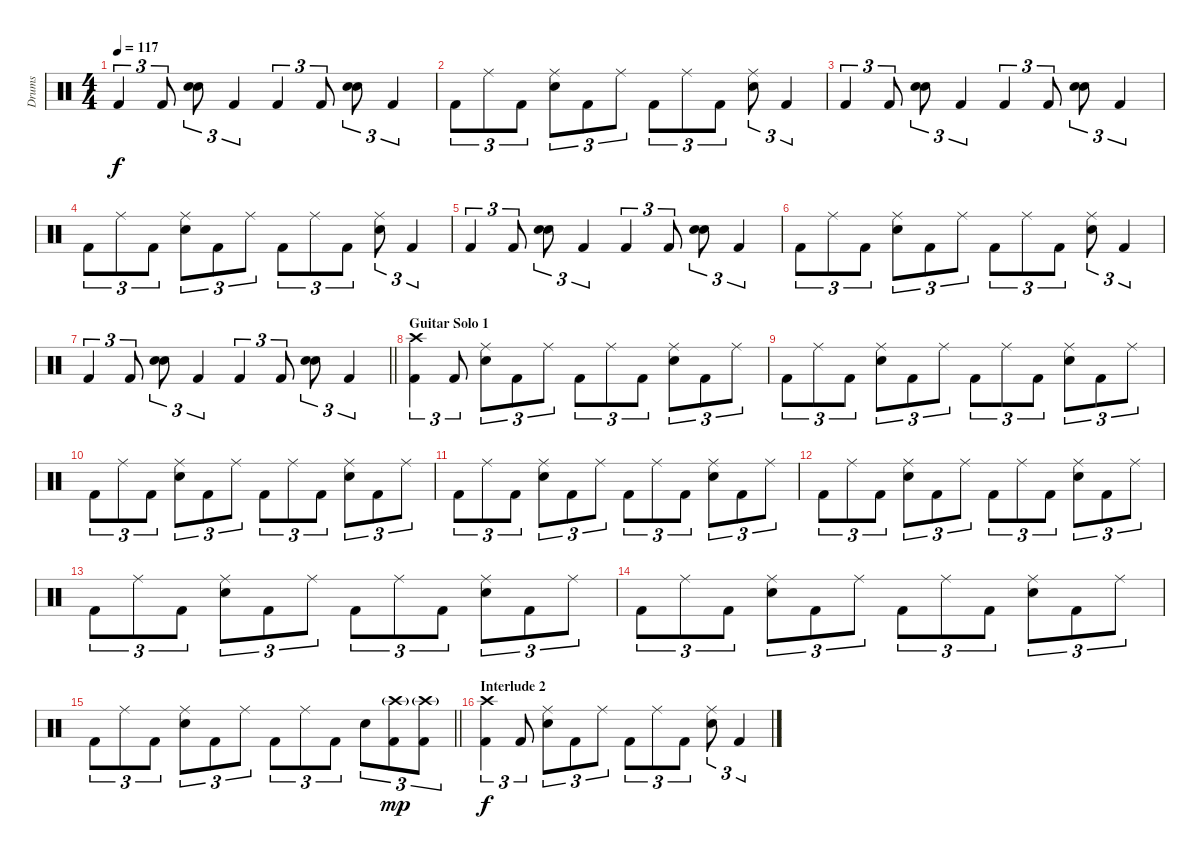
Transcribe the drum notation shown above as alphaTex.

\track ("Drums" "Drums") {instrument percussion}
\staff {score}
\articulation defaults
\ts (4 4)
\tempo 117
\clef neutral
\ks c "Kick (hit) 2".4{tu (3 2) dy f} "Kick (hit) 2".8{tu (3 2)}
("Electric Snare (hit)" "Electric Snare (hit)").8{tu (3 2)} "Kick (hit) 2".4{tu (3 2)} "Kick (hit) 2".4{tu (3 2)} "Kick (hit) 2".8{tu (3 2)} ("Electric Snare (hit)" "Electric Snare (hit)").8{tu (3 2)} "Kick (hit) 2".4{tu (3 2)} |
"Kick (hit) 2".8{tu (3 2)} "Ride (middle)".8{tu (3 2)} "Kick (hit) 2".8{tu (3 2)} ("Ride (middle)" "Electric Snare (hit)").8{tu (3 2)} "Kick (hit) 2".8{tu (3 2)} "Ride (middle)".8{tu (3 2)} "Kick (hit) 2".8{tu (3 2)} "Ride (middle)".8{tu (3 2)} "Kick (hit) 2".8{tu (3 2)} ("Ride (middle)" "Electric Snare (hit)").8{tu (3 2)} "Kick (hit) 2".4{tu (3 2)} |
"Kick (hit) 2".4{tu (3 2)} "Kick (hit) 2".8{tu (3 2)} ("Electric Snare (hit)" "Electric Snare (hit)").8{tu (3 2)} "Kick (hit) 2".4{tu (3 2)} "Kick (hit) 2".4{tu (3 2)} "Kick (hit) 2".8{tu (3 2)} ("Electric Snare (hit)" "Electric Snare (hit)").8{tu (3 2)} "Kick (hit) 2".4{tu (3 2)} |
"Kick (hit) 2".8{tu (3 2)} "Ride (middle)".8{tu (3 2)} "Kick (hit) 2".8{tu (3 2)} ("Ride (middle)" "Electric Snare (hit)").8{tu (3 2)} "Kick (hit) 2".8{tu (3 2)} "Ride (middle)".8{tu (3 2)} "Kick (hit) 2".8{tu (3 2)} "Ride (middle)".8{tu (3 2)} "Kick (hit) 2".8{tu (3 2)} ("Ride (middle)" "Electric Snare (hit)").8{tu (3 2)} "Kick (hit) 2".4{tu (3 2)} |
"Kick (hit) 2".4{tu (3 2)} "Kick (hit) 2".8{tu (3 2)} ("Electric Snare (hit)" "Electric Snare (hit)").8{tu (3 2)} "Kick (hit) 2".4{tu (3 2)} "Kick (hit) 2".4{tu (3 2)} "Kick (hit) 2".8{tu (3 2)} ("Electric Snare (hit)" "Electric Snare (hit)").8{tu (3 2)} "Kick (hit) 2".4{tu (3 2)} |
"Kick (hit) 2".8{tu (3 2)} "Ride (middle)".8{tu (3 2)} "Kick (hit) 2".8{tu (3 2)} ("Ride (middle)" "Electric Snare (hit)").8{tu (3 2)} "Kick (hit) 2".8{tu (3 2)} "Ride (middle)".8{tu (3 2)} "Kick (hit) 2".8{tu (3 2)} "Ride (middle)".8{tu (3 2)} "Kick (hit) 2".8{tu (3 2)} ("Ride (middle)" "Electric Snare (hit)").8{tu (3 2)} "Kick (hit) 2".4{tu (3 2)} |
\barLineRight lightlight "Kick (hit) 2".4{tu (3 2)} "Kick (hit) 2".8{tu (3 2)}
("Electric Snare (hit)" "Electric Snare (hit)").8{tu (3 2)} "Kick (hit) 2".4{tu (3 2)} "Kick (hit) 2".4{tu (3 2)} "Kick (hit) 2".8{tu (3 2)} ("Electric Snare (hit)" "Electric Snare (hit)").8{tu (3 2)} "Kick (hit) 2".4{tu (3 2)} |
\section ("" "Guitar Solo 1")
("Crash high (hit)" "Kick (hit) 2").4{tu (3 2)} "Kick (hit) 2".8{tu (3 2)} ("Ride (middle)" "Electric Snare (hit)").8{tu (3 2)} "Kick (hit) 2".8{tu (3 2)} "Ride (middle)".8{tu (3 2)} "Kick (hit) 2".8{tu (3 2)} "Ride (middle)".8{tu (3 2)} "Kick (hit) 2".8{tu (3 2)} ("Ride (middle)" "Electric Snare (hit)").8{tu (3 2)} "Kick (hit) 2".8{tu (3 2)} "Ride (middle)".8{tu (3 2)} |
"Kick (hit) 2".8{tu (3 2)} "Ride (middle)".8{tu (3 2)} "Kick (hit) 2".8{tu (3 2)} ("Ride (middle)" "Electric Snare (hit)").8{tu (3 2)} "Kick (hit) 2".8{tu (3 2)} "Ride (middle)".8{tu (3 2)} "Kick (hit) 2".8{tu (3 2)} "Ride (middle)".8{tu (3 2)} "Kick (hit) 2".8{tu (3 2)} ("Ride (middle)" "Electric Snare (hit)").8{tu (3 2)} "Kick (hit) 2".8{tu (3 2)} "Ride (middle)".8{tu (3 2)} |
"Kick (hit) 2".8{tu (3 2)} "Ride (middle)".8{tu (3 2)} "Kick (hit) 2".8{tu (3 2)} ("Ride (middle)" "Electric Snare (hit)").8{tu (3 2)} "Kick (hit) 2".8{tu (3 2)} "Ride (middle)".8{tu (3 2)} "Kick (hit) 2".8{tu (3 2)} "Ride (middle)".8{tu (3 2)} "Kick (hit) 2".8{tu (3 2)} ("Ride (middle)" "Electric Snare (hit)").8{tu (3 2)} "Kick (hit) 2".8{tu (3 2)} "Ride (middle)".8{tu (3 2)} |
"Kick (hit) 2".8{tu (3 2)} "Ride (middle)".8{tu (3 2)} "Kick (hit) 2".8{tu (3 2)} ("Ride (middle)" "Electric Snare (hit)").8{tu (3 2)} "Kick (hit) 2".8{tu (3 2)} "Ride (middle)".8{tu (3 2)} "Kick (hit) 2".8{tu (3 2)} "Ride (middle)".8{tu (3 2)} "Kick (hit) 2".8{tu (3 2)} ("Ride (middle)" "Electric Snare (hit)").8{tu (3 2)} "Kick (hit) 2".8{tu (3 2)} "Ride (middle)".8{tu (3 2)} |
"Kick (hit) 2".8{tu (3 2)} "Ride (middle)".8{tu (3 2)} "Kick (hit) 2".8{tu (3 2)} ("Ride (middle)" "Electric Snare (hit)").8{tu (3 2)} "Kick (hit) 2".8{tu (3 2)} "Ride (middle)".8{tu (3 2)} "Kick (hit) 2".8{tu (3 2)} "Ride (middle)".8{tu (3 2)} "Kick (hit) 2".8{tu (3 2)} ("Ride (middle)" "Electric Snare (hit)").8{tu (3 2)} "Kick (hit) 2".8{tu (3 2)} "Ride (middle)".8{tu (3 2)} |
"Kick (hit) 2".8{tu (3 2)} "Ride (middle)".8{tu (3 2)} "Kick (hit) 2".8{tu (3 2)} ("Ride (middle)" "Electric Snare (hit)").8{tu (3 2)} "Kick (hit) 2".8{tu (3 2)} "Ride (middle)".8{tu (3 2)} "Kick (hit) 2".8{tu (3 2)} "Ride (middle)".8{tu (3 2)} "Kick (hit) 2".8{tu (3 2)} ("Ride (middle)" "Electric Snare (hit)").8{tu (3 2)} "Kick (hit) 2".8{tu (3 2)} "Ride (middle)".8{tu (3 2)} |
"Kick (hit) 2".8{tu (3 2)} "Ride (middle)".8{tu (3 2)} "Kick (hit) 2".8{tu (3 2)} ("Ride (middle)" "Electric Snare (hit)").8{tu (3 2)} "Kick (hit) 2".8{tu (3 2)} "Ride (middle)".8{tu (3 2)} "Kick (hit) 2".8{tu (3 2)} "Ride (middle)".8{tu (3 2)} "Kick (hit) 2".8{tu (3 2)} ("Ride (middle)" "Electric Snare (hit)").8{tu (3 2)} "Kick (hit) 2".8{tu (3 2)} "Ride (middle)".8{tu (3 2)} |
\barLineRight lightlight "Kick (hit) 2".8{tu (3 2)} "Ride (middle)".8{tu (3 2)} "Kick (hit) 2".8{tu (3 2)}
("Ride (middle)" "Electric Snare (hit)").8{tu (3 2)} "Kick (hit) 2".8{tu (3 2)} "Ride (middle)".8{tu (3 2)} "Kick (hit) 2".8{tu (3 2)} "Ride (middle)".8{tu (3 2)} "Kick (hit) 2".8{tu (3 2)} "Electric Snare (hit)".8{tu (3 2)} ("Crash high (hit)"{g} "Kick (hit) 2").8{tu (3 2) dy mp} ("Crash high (hit)"{g} "Kick (hit) 2").8{tu (3 2)} |
\section ("" "Interlude 2")
("Crash high (hit)" "Kick (hit) 2").4{tu (3 2) dy f} "Kick (hit) 2".8{tu (3 2)} ("Ride (middle)" "Electric Snare (hit)").8{tu (3 2)} "Kick (hit) 2".8{tu (3 2)} "Ride (middle)".8{tu (3 2)} "Kick (hit) 2".8{tu (3 2)} "Ride (middle)".8{tu (3 2)} "Kick (hit) 2".8{tu (3 2)} ("Ride (middle)" "Electric Snare (hit)").8{tu (3 2)} "Kick (hit) 2".4{tu (3 2)}
